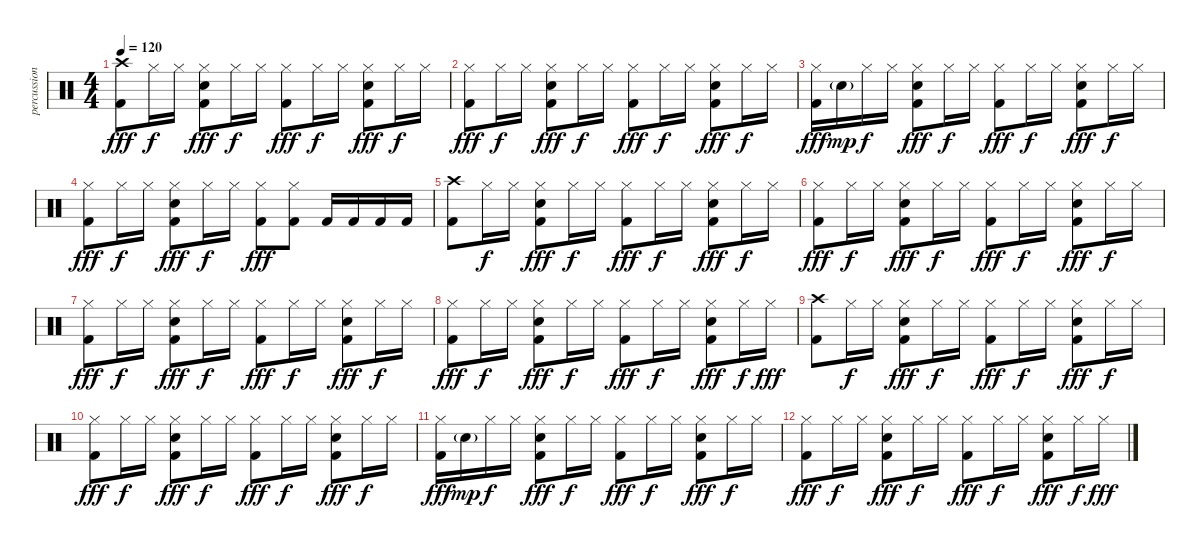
\track ("percussion" "percussion") {instrument percussion}
\staff {score}
\articulation defaults
\ts (4 4)
\tempo 120
\clef neutral
\ks c
("Crash high (hit)" "Kick (hit) 2").8{dy fff} "Hi-Hat (closed)".16{dy f} "Hi-Hat (closed)".16 ("Snare (hit) 2" "Hi-Hat (closed)" "Kick (hit) 2").8{dy fff} "Hi-Hat (closed)".16{dy f} "Hi-Hat (closed)".16 ("Hi-Hat (closed)" "Kick (hit) 2").8{dy fff} "Hi-Hat (closed)".16{dy f} "Hi-Hat (closed)".16 ("Snare (hit) 2" "Hi-Hat (closed)" "Kick (hit) 2").8{dy fff} "Hi-Hat (closed)".16{dy f} "Hi-Hat (closed)".16 |
("Hi-Hat (closed)" "Kick (hit) 2").8{dy fff} "Hi-Hat (closed)".16{dy f} "Hi-Hat (closed)".16 ("Snare (hit) 2" "Hi-Hat (closed)" "Kick (hit) 2").8{dy fff} "Hi-Hat (closed)".16{dy f} "Hi-Hat (closed)".16 ("Hi-Hat (closed)" "Kick (hit) 2").8{dy fff} "Hi-Hat (closed)".16{dy f} "Hi-Hat (closed)".16 ("Snare (hit) 2" "Hi-Hat (closed)" "Kick (hit) 2").8{dy fff} "Hi-Hat (closed)".16{dy f} "Hi-Hat (closed)".16 |
("Hi-Hat (closed)" "Kick (hit) 2").16{dy fff} "Electric Snare (hit)"{g}.16{dy mp} "Hi-Hat (closed)".16{dy f} "Hi-Hat (closed)".16 ("Snare (hit) 2" "Hi-Hat (closed)" "Kick (hit) 2").8{dy fff} "Hi-Hat (closed)".16{dy f} "Hi-Hat (closed)".16 ("Hi-Hat (closed)" "Kick (hit) 2").8{dy fff} "Hi-Hat (closed)".16{dy f} "Hi-Hat (closed)".16 ("Snare (hit) 2" "Hi-Hat (closed)" "Kick (hit) 2").8{dy fff} "Hi-Hat (closed)".16{dy f} "Hi-Hat (closed)".16 |
("Hi-Hat (closed)" "Kick (hit) 2").8{dy fff} "Hi-Hat (closed)".16{dy f} "Hi-Hat (closed)".16 ("Snare (hit) 2" "Hi-Hat (closed)" "Kick (hit) 2").8{dy fff} "Hi-Hat (closed)".16{dy f} "Hi-Hat (closed)".16 ("Hi-Hat (closed)" "Kick (hit) 2").8{dy fff} ("Hi-Hat (closed)" "Kick (hit) 2").8 "Kick (hit) 2".16 "Kick (hit) 2".16 "Kick (hit) 2".16 "Kick (hit) 2".16 |
("Crash high (hit)" "Kick (hit) 2").8 "Hi-Hat (closed)".16{dy f} "Hi-Hat (closed)".16 ("Snare (hit) 2" "Hi-Hat (closed)" "Kick (hit) 2").8{dy fff} "Hi-Hat (closed)".16{dy f} "Hi-Hat (closed)".16 ("Hi-Hat (closed)" "Kick (hit) 2").8{dy fff} "Hi-Hat (closed)".16{dy f} "Hi-Hat (closed)".16 ("Snare (hit) 2" "Hi-Hat (closed)" "Kick (hit) 2").8{dy fff} "Hi-Hat (closed)".16{dy f} "Hi-Hat (closed)".16 |
("Hi-Hat (closed)" "Kick (hit) 2").8{dy fff} "Hi-Hat (closed)".16{dy f} "Hi-Hat (closed)".16 ("Snare (hit) 2" "Hi-Hat (closed)" "Kick (hit) 2").8{dy fff} "Hi-Hat (closed)".16{dy f} "Hi-Hat (closed)".16 ("Hi-Hat (closed)" "Kick (hit) 2").8{dy fff} "Hi-Hat (closed)".16{dy f} "Hi-Hat (closed)".16 ("Snare (hit) 2" "Hi-Hat (closed)" "Kick (hit) 2").8{dy fff} "Hi-Hat (closed)".16{dy f} "Hi-Hat (closed)".16 |
("Hi-Hat (closed)" "Kick (hit) 2").8{dy fff} "Hi-Hat (closed)".16{dy f} "Hi-Hat (closed)".16 ("Snare (hit) 2" "Hi-Hat (closed)" "Kick (hit) 2").8{dy fff} "Hi-Hat (closed)".16{dy f} "Hi-Hat (closed)".16 ("Hi-Hat (closed)" "Kick (hit) 2").8{dy fff} "Hi-Hat (closed)".16{dy f} "Hi-Hat (closed)".16 ("Snare (hit) 2" "Hi-Hat (closed)" "Kick (hit) 2").8{dy fff} "Hi-Hat (closed)".16{dy f} "Hi-Hat (closed)".16 |
("Hi-Hat (closed)" "Kick (hit) 2").8{dy fff} "Hi-Hat (closed)".16{dy f} "Hi-Hat (closed)".16 ("Snare (hit) 2" "Hi-Hat (closed)" "Kick (hit) 2").8{dy fff} "Hi-Hat (closed)".16{dy f} "Hi-Hat (closed)".16 ("Hi-Hat (closed)" "Kick (hit) 2").8{dy fff} "Hi-Hat (closed)".16{dy f} "Hi-Hat (closed)".16 ("Snare (hit) 2" "Hi-Hat (closed)" "Kick (hit) 2").8{dy fff} "Hi-Hat (closed)".16{dy f} "Hi-Hat (closed)".16{dy fff} |
("Crash high (hit)" "Kick (hit) 2").8 "Hi-Hat (closed)".16{dy f} "Hi-Hat (closed)".16 ("Snare (hit) 2" "Hi-Hat (closed)" "Kick (hit) 2").8{dy fff} "Hi-Hat (closed)".16{dy f} "Hi-Hat (closed)".16 ("Hi-Hat (closed)" "Kick (hit) 2").8{dy fff} "Hi-Hat (closed)".16{dy f} "Hi-Hat (closed)".16 ("Snare (hit) 2" "Hi-Hat (closed)" "Kick (hit) 2").8{dy fff} "Hi-Hat (closed)".16{dy f} "Hi-Hat (closed)".16 |
("Hi-Hat (closed)" "Kick (hit) 2").8{dy fff} "Hi-Hat (closed)".16{dy f} "Hi-Hat (closed)".16 ("Snare (hit) 2" "Hi-Hat (closed)" "Kick (hit) 2").8{dy fff} "Hi-Hat (closed)".16{dy f} "Hi-Hat (closed)".16 ("Hi-Hat (closed)" "Kick (hit) 2").8{dy fff} "Hi-Hat (closed)".16{dy f} "Hi-Hat (closed)".16 ("Snare (hit) 2" "Hi-Hat (closed)" "Kick (hit) 2").8{dy fff} "Hi-Hat (closed)".16{dy f} "Hi-Hat (closed)".16 |
("Hi-Hat (closed)" "Kick (hit) 2").16{dy fff} "Electric Snare (hit)"{g}.16{dy mp} "Hi-Hat (closed)".16{dy f} "Hi-Hat (closed)".16 ("Snare (hit) 2" "Hi-Hat (closed)" "Kick (hit) 2").8{dy fff} "Hi-Hat (closed)".16{dy f} "Hi-Hat (closed)".16 ("Hi-Hat (closed)" "Kick (hit) 2").8{dy fff} "Hi-Hat (closed)".16{dy f} "Hi-Hat (closed)".16 ("Snare (hit) 2" "Hi-Hat (closed)" "Kick (hit) 2").8{dy fff} "Hi-Hat (closed)".16{dy f} "Hi-Hat (closed)".16 |
("Hi-Hat (closed)" "Kick (hit) 2").8{dy fff} "Hi-Hat (closed)".16{dy f} "Hi-Hat (closed)".16 ("Snare (hit) 2" "Hi-Hat (closed)" "Kick (hit) 2").8{dy fff} "Hi-Hat (closed)".16{dy f} "Hi-Hat (closed)".16 ("Hi-Hat (closed)" "Kick (hit) 2").8{dy fff} "Hi-Hat (closed)".16{dy f} "Hi-Hat (closed)".16 ("Snare (hit) 2" "Hi-Hat (closed)" "Kick (hit) 2").8{dy fff} "Hi-Hat (closed)".16{dy f} "Hi-Hat (closed)".16{dy fff}
